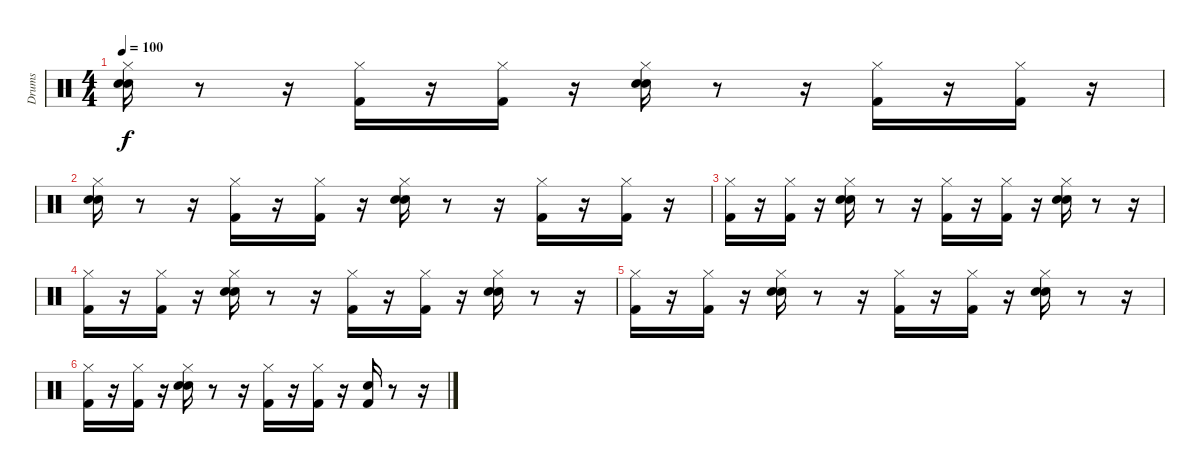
\track ("Drums" "Drums") {instrument percussion}
\staff {score}
\articulation defaults
\ts (4 4)
\tempo 100
\clef neutral
\ks c
("Hi-Hat (closed)" "Snare (hit) 2" "Hand Clap (hit)").16{dy f} r.8 r.16 ("Hi-Hat (closed)" "Kick (hit) 2").16 r.16 ("Hi-Hat (closed)" "Kick (hit) 2").16 r.16 ("Hand Clap (hit)" "Hi-Hat (closed)" "Snare (hit) 2").16 r.8 r.16 ("Hi-Hat (closed)" "Kick (hit) 2").16 r.16 ("Kick (hit) 2" "Hi-Hat (closed)").16 r.16 |
("Snare (hit) 2" "Hand Clap (hit)" "Hi-Hat (closed)").16 r.8 r.16 ("Hi-Hat (closed)" "Kick (hit) 2").16 r.16 ("Hi-Hat (closed)" "Kick (hit) 2").16 r.16 ("Hand Clap (hit)" "Hi-Hat (closed)" "Snare (hit) 2").16 r.8 r.16 ("Hi-Hat (closed)" "Kick (hit) 2").16 r.16 ("Kick (hit) 2" "Hi-Hat (closed)").16 r.16 |
("Kick (hit) 2" "Hi-Hat (closed)").16 r.16 ("Kick (hit) 2" "Hi-Hat (closed)").16 r.16 ("Snare (hit) 2" "Hand Clap (hit)" "Hi-Hat (closed)").16 r.8 r.16 ("Hi-Hat (closed)" "Kick (hit) 2").16 r.16 ("Hi-Hat (closed)" "Kick (hit) 2").16 r.16 ("Hi-Hat (closed)" "Snare (hit) 2" "Hand Clap (hit)").16 r.8 r.16 |
("Hi-Hat (closed)" "Kick (hit) 2").16 r.16 ("Hi-Hat (closed)" "Kick (hit) 2").16 r.16 ("Hi-Hat (closed)" "Hand Clap (hit)" "Snare (hit) 2").16 r.8 r.16 ("Kick (hit) 2" "Hi-Hat (closed)").16 r.16 ("Kick (hit) 2" "Hi-Hat (closed)").16 r.16 ("Hi-Hat (closed)" "Snare (hit) 2" "Hand Clap (hit)").16 r.8 r.16 |
("Hi-Hat (closed)" "Kick (hit) 2").16 r.16 ("Kick (hit) 2" "Hi-Hat (closed)").16 r.16 ("Hand Clap (hit)" "Snare (hit) 2" "Hi-Hat (closed)").16 r.8 r.16 ("Hi-Hat (closed)" "Kick (hit) 2").16 r.16 ("Hi-Hat (closed)" "Kick (hit) 2").16 r.16 ("Hi-Hat (closed)" "Snare (hit) 2" "Hand Clap (hit)").16 r.8 r.16 |
("Hi-Hat (closed)" "Kick (hit) 2").16 r.16 ("Kick (hit) 2" "Hi-Hat (closed)").16 r.16 ("Snare (hit) 2" "Hi-Hat (closed)" "Hand Clap (hit)").16 r.8 r.16 ("Kick (hit) 2" "Hi-Hat (closed)").16 r.16 ("Kick (hit) 2" "Hi-Hat (closed)").16 r.16 ("Kick (hit) 2" "Hand Clap (hit)").16 r.8 r.16
